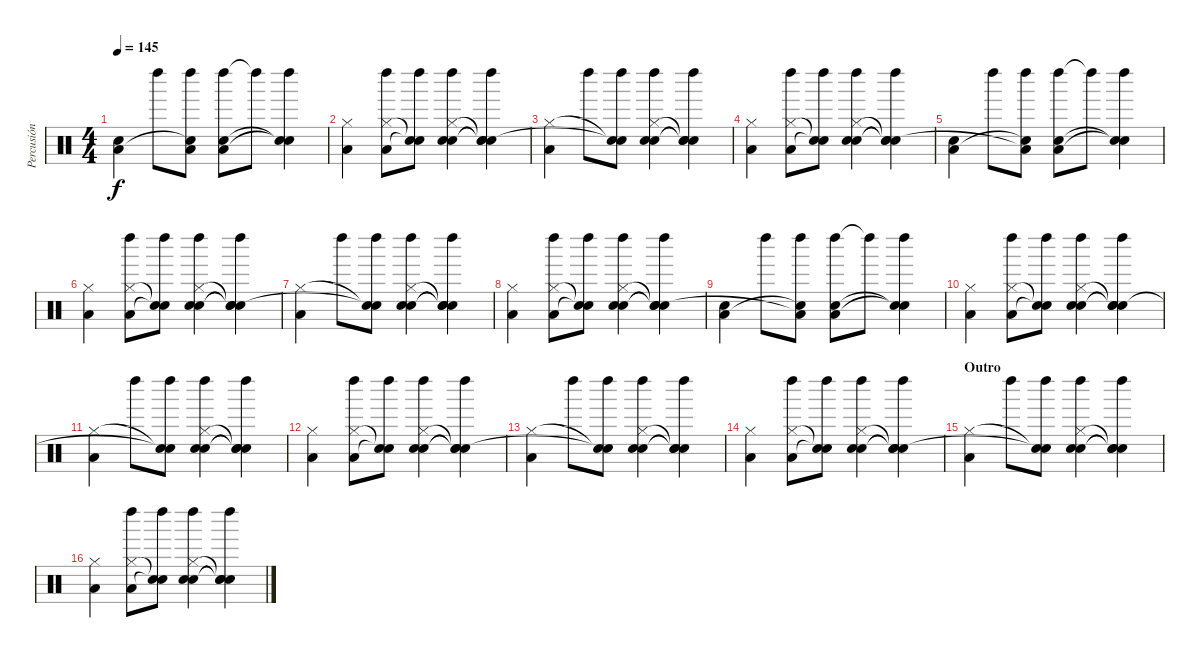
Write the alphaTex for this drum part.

\track ("Percusión" "Percusión") {instrument percussion}
\staff {score}
\articulation defaults
\ts (4 4)
\tempo 145
\clef neutral
\ks c
("Snare (hit) 2" "Low Floor Tom (hit)").4{dy f} "Left Maraca (hit)".8 ("Left Maraca (hit)" "Snare (hit)"{t} "Low Floor Tom (hit)"{t}).8 ("Left Maraca (hit)" "Snare (hit) 2" "Low Floor Tom (hit)").8 "Left Maraca (hit)"{t}.8 ("Left Maraca (hit)" "Snare (hit)"{t} "Snare (hit)"{t}).4 |
("Low Floor Tom (hit)" "Hi-Hat (closed)").4 ("Left Maraca (hit)" "Low Floor Tom (hit)" "Hi-Hat (closed)").8 ("Left Maraca (hit)" "Snare (hit)"{t} "Snare (hit)"{t}).8 ("Left Maraca (hit)" "Electric Snare (hit)" "Hi-Hat (closed)" "Snare (hit) 2").4 ("Left Maraca (hit)" "Snare (hit)"{t} "Snare (hit)"{t} "Snare (hit)"{t}).4 |
("Low Floor Tom (hit)" "Hi-Hat (closed)").4 "Left Maraca (hit)".8 ("Left Maraca (hit)" "Snare (hit)"{t} "Snare (hit)"{t}).8 ("Left Maraca (hit)" "Electric Snare (hit)" "Hi-Hat (closed)" "Snare (hit) 2").4 ("Left Maraca (hit)" "Snare (hit)"{t} "Snare (hit)"{t} "Snare (hit)"{t}).4 |
("Low Floor Tom (hit)" "Hi-Hat (closed)").4 ("Left Maraca (hit)" "Low Floor Tom (hit)" "Hi-Hat (closed)").8 ("Left Maraca (hit)" "Snare (hit)"{t} "Snare (hit)"{t}).8 ("Left Maraca (hit)" "Electric Snare (hit)" "Hi-Hat (closed)" "Snare (hit) 2").4 ("Left Maraca (hit)" "Snare (hit)"{t} "Snare (hit)"{t} "Snare (hit)"{t}).4 |
("Snare (hit) 2" "Low Floor Tom (hit)").4 "Left Maraca (hit)".8 ("Left Maraca (hit)" "Snare (hit)"{t} "Low Floor Tom (hit)"{t}).8 ("Left Maraca (hit)" "Snare (hit) 2" "Low Floor Tom (hit)").8 "Left Maraca (hit)"{t}.8 ("Left Maraca (hit)" "Snare (hit)"{t} "Snare (hit)"{t}).4 |
("Low Floor Tom (hit)" "Hi-Hat (closed)").4 ("Left Maraca (hit)" "Low Floor Tom (hit)" "Hi-Hat (closed)").8 ("Left Maraca (hit)" "Snare (hit)"{t} "Snare (hit)"{t}).8 ("Left Maraca (hit)" "Electric Snare (hit)" "Hi-Hat (closed)" "Snare (hit) 2").4 ("Left Maraca (hit)" "Snare (hit)"{t} "Snare (hit)"{t} "Snare (hit)"{t}).4 |
("Low Floor Tom (hit)" "Hi-Hat (closed)").4 "Left Maraca (hit)".8 ("Left Maraca (hit)" "Snare (hit)"{t} "Snare (hit)"{t}).8 ("Left Maraca (hit)" "Electric Snare (hit)" "Hi-Hat (closed)" "Snare (hit) 2").4 ("Left Maraca (hit)" "Snare (hit)"{t} "Snare (hit)"{t} "Snare (hit)"{t}).4 |
("Low Floor Tom (hit)" "Hi-Hat (closed)").4 ("Left Maraca (hit)" "Low Floor Tom (hit)" "Hi-Hat (closed)").8 ("Left Maraca (hit)" "Snare (hit)"{t} "Snare (hit)"{t}).8 ("Left Maraca (hit)" "Electric Snare (hit)" "Hi-Hat (closed)" "Snare (hit) 2").4 ("Left Maraca (hit)" "Snare (hit)"{t} "Snare (hit)"{t} "Snare (hit)"{t}).4 |
("Snare (hit) 2" "Low Floor Tom (hit)").4 "Left Maraca (hit)".8 ("Left Maraca (hit)" "Snare (hit)"{t} "Low Floor Tom (hit)"{t}).8 ("Left Maraca (hit)" "Snare (hit) 2" "Low Floor Tom (hit)").8 "Left Maraca (hit)"{t}.8 ("Left Maraca (hit)" "Snare (hit)"{t} "Snare (hit)"{t}).4 |
("Low Floor Tom (hit)" "Hi-Hat (closed)").4 ("Left Maraca (hit)" "Low Floor Tom (hit)" "Hi-Hat (closed)").8 ("Left Maraca (hit)" "Snare (hit)"{t} "Snare (hit)"{t}).8 ("Left Maraca (hit)" "Electric Snare (hit)" "Hi-Hat (closed)" "Snare (hit) 2").4 ("Left Maraca (hit)" "Snare (hit)"{t} "Snare (hit)"{t} "Snare (hit)"{t}).4 |
("Low Floor Tom (hit)" "Hi-Hat (closed)").4 "Left Maraca (hit)".8 ("Left Maraca (hit)" "Snare (hit)"{t} "Snare (hit)"{t}).8 ("Left Maraca (hit)" "Electric Snare (hit)" "Hi-Hat (closed)" "Snare (hit) 2").4 ("Left Maraca (hit)" "Snare (hit)"{t} "Snare (hit)"{t} "Snare (hit)"{t}).4 |
("Low Floor Tom (hit)" "Hi-Hat (closed)").4 ("Left Maraca (hit)" "Low Floor Tom (hit)" "Hi-Hat (closed)").8 ("Left Maraca (hit)" "Snare (hit)"{t} "Snare (hit)"{t}).8 ("Left Maraca (hit)" "Electric Snare (hit)" "Hi-Hat (closed)" "Snare (hit) 2").4 ("Left Maraca (hit)" "Snare (hit)"{t} "Snare (hit)"{t} "Snare (hit)"{t}).4 |
("Low Floor Tom (hit)" "Hi-Hat (closed)").4 "Left Maraca (hit)".8 ("Left Maraca (hit)" "Snare (hit)"{t} "Snare (hit)"{t}).8 ("Left Maraca (hit)" "Electric Snare (hit)" "Hi-Hat (closed)" "Snare (hit) 2").4 ("Left Maraca (hit)" "Snare (hit)"{t} "Snare (hit)"{t} "Snare (hit)"{t}).4 |
("Low Floor Tom (hit)" "Hi-Hat (closed)").4 ("Left Maraca (hit)" "Low Floor Tom (hit)" "Hi-Hat (closed)").8 ("Left Maraca (hit)" "Snare (hit)"{t} "Snare (hit)"{t}).8 ("Left Maraca (hit)" "Electric Snare (hit)" "Hi-Hat (closed)" "Snare (hit) 2").4 ("Left Maraca (hit)" "Snare (hit)"{t} "Snare (hit)"{t} "Snare (hit)"{t}).4 |
\section ("" "Outro")
("Low Floor Tom (hit)" "Hi-Hat (closed)").4 "Left Maraca (hit)".8 ("Left Maraca (hit)" "Snare (hit)"{t} "Snare (hit)"{t}).8 ("Left Maraca (hit)" "Electric Snare (hit)" "Hi-Hat (closed)" "Snare (hit) 2").4 ("Left Maraca (hit)" "Snare (hit)"{t} "Snare (hit)"{t} "Snare (hit)"{t}).4 |
("Low Floor Tom (hit)" "Hi-Hat (closed)").4 ("Left Maraca (hit)" "Low Floor Tom (hit)" "Hi-Hat (closed)").8 ("Left Maraca (hit)" "Snare (hit)"{t} "Snare (hit)"{t}).8 ("Left Maraca (hit)" "Electric Snare (hit)" "Hi-Hat (closed)" "Snare (hit) 2").4 ("Left Maraca (hit)" "Snare (hit)"{t} "Snare (hit)"{t} "Snare (hit)"{t}).4
